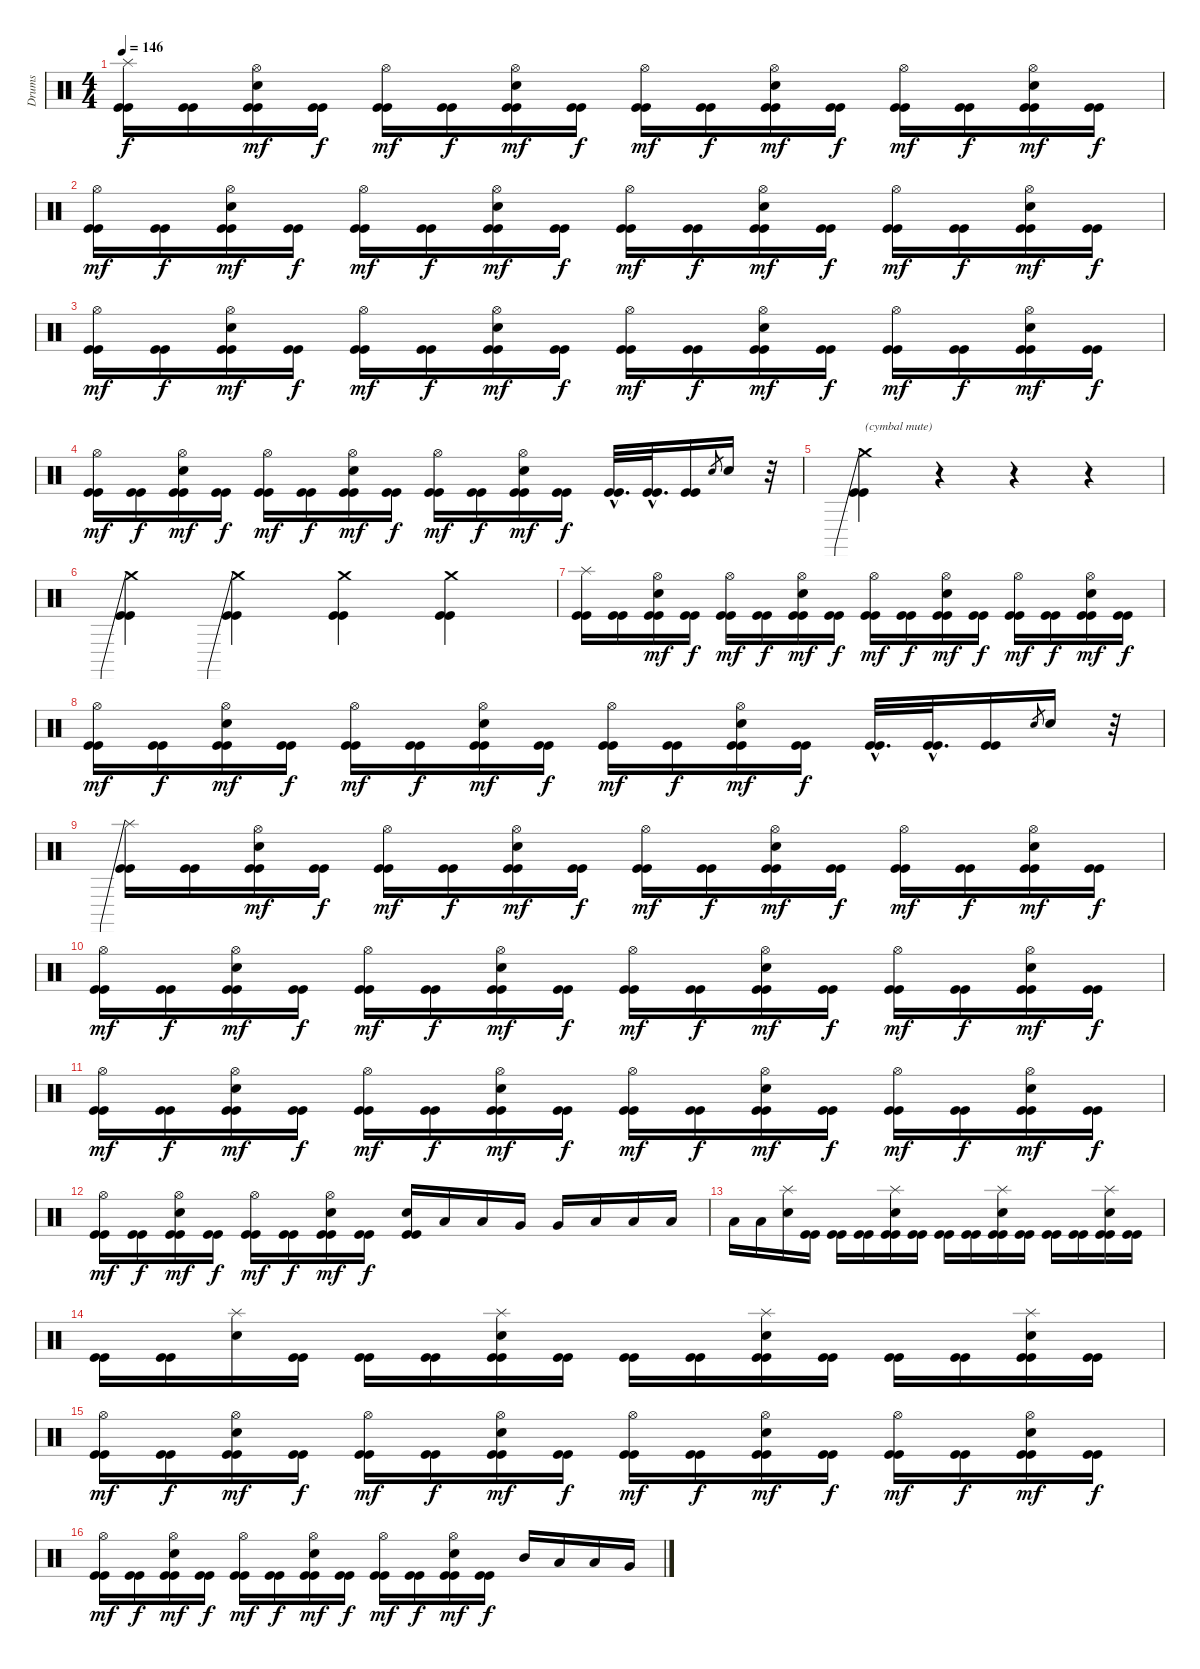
\track ("Drums" "Drums") {instrument percussion}
\staff {score}
\articulation defaults
\ts (4 4)
\tempo 146
\clef neutral
\ks c
("Splash (hit)" "Kick (hit)" "Kick (hit)").16{dy f} ("Kick (hit)" "Kick (hit)").16 ("Hi-Hat (open)" "Electric Snare (hit)" "Kick (hit)" "Kick (hit)").16{dy mf} ("Kick (hit)" "Kick (hit)").16{dy f} ("Hi-Hat (open)" "Kick (hit)" "Kick (hit)").16{dy mf} ("Kick (hit)" "Kick (hit)").16{dy f} ("Hi-Hat (open)" "Electric Snare (hit)" "Kick (hit)" "Kick (hit)").16{dy mf} ("Kick (hit)" "Kick (hit)").16{dy f} ("Hi-Hat (open)" "Kick (hit)" "Kick (hit)").16{dy mf} ("Kick (hit)" "Kick (hit)").16{dy f} ("Hi-Hat (open)" "Electric Snare (hit)" "Kick (hit)" "Kick (hit)").16{dy mf} ("Kick (hit)" "Kick (hit)").16{dy f} ("Hi-Hat (open)" "Kick (hit)" "Kick (hit)").16{dy mf} ("Kick (hit)" "Kick (hit)").16{dy f} ("Hi-Hat (open)" "Electric Snare (hit)" "Kick (hit)" "Kick (hit)").16{dy mf} ("Kick (hit)" "Kick (hit)").16{dy f} |
("Hi-Hat (open)" "Kick (hit)" "Kick (hit)").16{dy mf} ("Kick (hit)" "Kick (hit)").16{dy f} ("Hi-Hat (open)" "Electric Snare (hit)" "Kick (hit)" "Kick (hit)").16{dy mf} ("Kick (hit)" "Kick (hit)").16{dy f} ("Hi-Hat (open)" "Kick (hit)" "Kick (hit)").16{dy mf} ("Kick (hit)" "Kick (hit)").16{dy f} ("Hi-Hat (open)" "Electric Snare (hit)" "Kick (hit)" "Kick (hit)").16{dy mf} ("Kick (hit)" "Kick (hit)").16{dy f} ("Hi-Hat (open)" "Kick (hit)" "Kick (hit)").16{dy mf} ("Kick (hit)" "Kick (hit)").16{dy f} ("Hi-Hat (open)" "Electric Snare (hit)" "Kick (hit)" "Kick (hit)").16{dy mf} ("Kick (hit)" "Kick (hit)").16{dy f} ("Hi-Hat (open)" "Kick (hit)" "Kick (hit)").16{dy mf} ("Kick (hit)" "Kick (hit)").16{dy f} ("Hi-Hat (open)" "Electric Snare (hit)" "Kick (hit)" "Kick (hit)").16{dy mf} ("Kick (hit)" "Kick (hit)").16{dy f} |
("Hi-Hat (open)" "Kick (hit)" "Kick (hit)").16{dy mf} ("Kick (hit)" "Kick (hit)").16{dy f} ("Hi-Hat (open)" "Electric Snare (hit)" "Kick (hit)" "Kick (hit)").16{dy mf} ("Kick (hit)" "Kick (hit)").16{dy f} ("Hi-Hat (open)" "Kick (hit)" "Kick (hit)").16{dy mf} ("Kick (hit)" "Kick (hit)").16{dy f} ("Hi-Hat (open)" "Electric Snare (hit)" "Kick (hit)" "Kick (hit)").16{dy mf} ("Kick (hit)" "Kick (hit)").16{dy f} ("Hi-Hat (open)" "Kick (hit)" "Kick (hit)").16{dy mf} ("Kick (hit)" "Kick (hit)").16{dy f} ("Hi-Hat (open)" "Electric Snare (hit)" "Kick (hit)" "Kick (hit)").16{dy mf} ("Kick (hit)" "Kick (hit)").16{dy f} ("Hi-Hat (open)" "Kick (hit)" "Kick (hit)").16{dy mf} ("Kick (hit)" "Kick (hit)").16{dy f} ("Hi-Hat (open)" "Electric Snare (hit)" "Kick (hit)" "Kick (hit)").16{dy mf} ("Kick (hit)" "Kick (hit)").16{dy f} |
("Hi-Hat (open)" "Kick (hit)" "Kick (hit)").16{dy mf} ("Kick (hit)" "Kick (hit)").16{dy f} ("Hi-Hat (open)" "Electric Snare (hit)" "Kick (hit)" "Kick (hit)").16{dy mf} ("Kick (hit)" "Kick (hit)").16{dy f} ("Hi-Hat (open)" "Kick (hit)" "Kick (hit)").16{dy mf} ("Kick (hit)" "Kick (hit)").16{dy f} ("Hi-Hat (open)" "Electric Snare (hit)" "Kick (hit)" "Kick (hit)").16{dy mf} ("Kick (hit)" "Kick (hit)").16{dy f} ("Hi-Hat (open)" "Kick (hit)" "Kick (hit)").16{dy mf} ("Kick (hit)" "Kick (hit)").16{dy f} ("Hi-Hat (open)" "Electric Snare (hit)" "Kick (hit)" "Kick (hit)").16{dy mf} ("Kick (hit)" "Kick (hit)").16{dy f} ("Kick (hit)"{hac} "Kick (hit)"{hac}).32{d} ("Kick (hit)"{hac} "Kick (hit)"{hac}).32{d} ("Kick (hit)" "Kick (hit)").16 "Electric Snare (hit)".8{gr} "Electric Snare (hit)".16 r.32 |
("Crash medium (hit)"{be (prebend 0 3 60 3)} "Kick (hit)" "Kick (hit)").4{txt "(cymbal mute)"} r.4{volume 0} r.4 r.4 |
("Crash medium (hit)"{be (prebend 0 5 60 5)} "Kick (hit)" "Kick (hit)").4{volume 11} ("Crash medium (hit)"{be (prebend 0 2 60 2)} "Kick (hit)" "Kick (hit)").4 ("Crash medium (hit)" "Kick (hit)" "Kick (hit)").4 ("Crash medium (hit)" "Kick (hit)" "Kick (hit)").4 |
("Splash (hit)" "Kick (hit)" "Kick (hit)").16 ("Kick (hit)" "Kick (hit)").16 ("Hi-Hat (open)" "Electric Snare (hit)" "Kick (hit)" "Kick (hit)").16{dy mf} ("Kick (hit)" "Kick (hit)").16{dy f} ("Hi-Hat (open)" "Kick (hit)" "Kick (hit)").16{dy mf} ("Kick (hit)" "Kick (hit)").16{dy f} ("Hi-Hat (open)" "Electric Snare (hit)" "Kick (hit)" "Kick (hit)").16{dy mf} ("Kick (hit)" "Kick (hit)").16{dy f} ("Hi-Hat (open)" "Kick (hit)" "Kick (hit)").16{dy mf} ("Kick (hit)" "Kick (hit)").16{dy f} ("Hi-Hat (open)" "Electric Snare (hit)" "Kick (hit)" "Kick (hit)").16{dy mf} ("Kick (hit)" "Kick (hit)").16{dy f} ("Hi-Hat (open)" "Kick (hit)" "Kick (hit)").16{dy mf} ("Kick (hit)" "Kick (hit)").16{dy f} ("Hi-Hat (open)" "Electric Snare (hit)" "Kick (hit)" "Kick (hit)").16{dy mf} ("Kick (hit)" "Kick (hit)").16{dy f} |
("Hi-Hat (open)" "Kick (hit)" "Kick (hit)").16{dy mf} ("Kick (hit)" "Kick (hit)").16{dy f} ("Hi-Hat (open)" "Electric Snare (hit)" "Kick (hit)" "Kick (hit)").16{dy mf} ("Kick (hit)" "Kick (hit)").16{dy f} ("Hi-Hat (open)" "Kick (hit)" "Kick (hit)").16{dy mf} ("Kick (hit)" "Kick (hit)").16{dy f} ("Hi-Hat (open)" "Electric Snare (hit)" "Kick (hit)" "Kick (hit)").16{dy mf} ("Kick (hit)" "Kick (hit)").16{dy f} ("Hi-Hat (open)" "Kick (hit)" "Kick (hit)").16{dy mf} ("Kick (hit)" "Kick (hit)").16{dy f} ("Hi-Hat (open)" "Electric Snare (hit)" "Kick (hit)" "Kick (hit)").16{dy mf} ("Kick (hit)" "Kick (hit)").16{dy f} ("Kick (hit)"{hac} "Kick (hit)"{hac}).32{d} ("Kick (hit)"{hac} "Kick (hit)"{hac}).32{d} ("Kick (hit)" "Kick (hit)").16 "Electric Snare (hit)".8{gr} "Electric Snare (hit)".16 r.32 |
("Splash (hit)"{be (prebend 0 4 60 4)} "Kick (hit)" "Kick (hit)").16 ("Kick (hit)" "Kick (hit)").16 ("Hi-Hat (open)" "Electric Snare (hit)" "Kick (hit)" "Kick (hit)").16{dy mf} ("Kick (hit)" "Kick (hit)").16{dy f} ("Hi-Hat (open)" "Kick (hit)" "Kick (hit)").16{dy mf} ("Kick (hit)" "Kick (hit)").16{dy f} ("Hi-Hat (open)" "Electric Snare (hit)" "Kick (hit)" "Kick (hit)").16{dy mf} ("Kick (hit)" "Kick (hit)").16{dy f} ("Hi-Hat (open)" "Kick (hit)" "Kick (hit)").16{dy mf} ("Kick (hit)" "Kick (hit)").16{dy f} ("Hi-Hat (open)" "Electric Snare (hit)" "Kick (hit)" "Kick (hit)").16{dy mf} ("Kick (hit)" "Kick (hit)").16{dy f} ("Hi-Hat (open)" "Kick (hit)" "Kick (hit)").16{dy mf} ("Kick (hit)" "Kick (hit)").16{dy f} ("Hi-Hat (open)" "Electric Snare (hit)" "Kick (hit)" "Kick (hit)").16{dy mf} ("Kick (hit)" "Kick (hit)").16{dy f} |
("Hi-Hat (open)" "Kick (hit)" "Kick (hit)").16{dy mf} ("Kick (hit)" "Kick (hit)").16{dy f} ("Hi-Hat (open)" "Electric Snare (hit)" "Kick (hit)" "Kick (hit)").16{dy mf} ("Kick (hit)" "Kick (hit)").16{dy f} ("Hi-Hat (open)" "Kick (hit)" "Kick (hit)").16{dy mf} ("Kick (hit)" "Kick (hit)").16{dy f} ("Hi-Hat (open)" "Electric Snare (hit)" "Kick (hit)" "Kick (hit)").16{dy mf} ("Kick (hit)" "Kick (hit)").16{dy f} ("Hi-Hat (open)" "Kick (hit)" "Kick (hit)").16{dy mf} ("Kick (hit)" "Kick (hit)").16{dy f} ("Hi-Hat (open)" "Electric Snare (hit)" "Kick (hit)" "Kick (hit)").16{dy mf} ("Kick (hit)" "Kick (hit)").16{dy f} ("Hi-Hat (open)" "Kick (hit)" "Kick (hit)").16{dy mf} ("Kick (hit)" "Kick (hit)").16{dy f} ("Hi-Hat (open)" "Electric Snare (hit)" "Kick (hit)" "Kick (hit)").16{dy mf} ("Kick (hit)" "Kick (hit)").16{dy f} |
("Hi-Hat (open)" "Kick (hit)" "Kick (hit)").16{dy mf} ("Kick (hit)" "Kick (hit)").16{dy f} ("Hi-Hat (open)" "Electric Snare (hit)" "Kick (hit)" "Kick (hit)").16{dy mf} ("Kick (hit)" "Kick (hit)").16{dy f} ("Hi-Hat (open)" "Kick (hit)" "Kick (hit)").16{dy mf} ("Kick (hit)" "Kick (hit)").16{dy f} ("Hi-Hat (open)" "Electric Snare (hit)" "Kick (hit)" "Kick (hit)").16{dy mf} ("Kick (hit)" "Kick (hit)").16{dy f} ("Hi-Hat (open)" "Kick (hit)" "Kick (hit)").16{dy mf} ("Kick (hit)" "Kick (hit)").16{dy f} ("Hi-Hat (open)" "Electric Snare (hit)" "Kick (hit)" "Kick (hit)").16{dy mf} ("Kick (hit)" "Kick (hit)").16{dy f} ("Hi-Hat (open)" "Kick (hit)" "Kick (hit)").16{dy mf} ("Kick (hit)" "Kick (hit)").16{dy f} ("Hi-Hat (open)" "Electric Snare (hit)" "Kick (hit)" "Kick (hit)").16{dy mf} ("Kick (hit)" "Kick (hit)").16{dy f} |
("Hi-Hat (open)" "Kick (hit)" "Kick (hit)").16{dy mf} ("Kick (hit)" "Kick (hit)").16{dy f} ("Hi-Hat (open)" "Electric Snare (hit)" "Kick (hit)" "Kick (hit)").16{dy mf} ("Kick (hit)" "Kick (hit)").16{dy f} ("Hi-Hat (open)" "Kick (hit)" "Kick (hit)").16{dy mf} ("Kick (hit)" "Kick (hit)").16{dy f} ("Hi-Hat (open)" "Electric Snare (hit)" "Kick (hit)" "Kick (hit)").16{dy mf} ("Kick (hit)" "Kick (hit)").16{dy f} ("Electric Snare (hit)" "Kick (hit)" "Kick (hit)").16 "Low Tom (hit)".16 "Low Tom (hit)".16 "Very Low Tom (hit)".16 "Very Low Tom (hit)".16 "Low Floor Tom (hit)".16 "Low Floor Tom (hit)".16 "Low Floor Tom (hit)".16 |
"Low Floor Tom (hit)".16 "Low Floor Tom (hit)".16 ("Splash (hit)" "Electric Snare (hit)").16 ("Kick (hit)" "Kick (hit)").16 ("Kick (hit)" "Kick (hit)").16 ("Kick (hit)" "Kick (hit)").16 ("Splash (hit)" "Electric Snare (hit)" "Kick (hit)" "Kick (hit)").16 ("Kick (hit)" "Kick (hit)").16 ("Kick (hit)" "Kick (hit)").16 ("Kick (hit)" "Kick (hit)").16 ("Splash (hit)" "Electric Snare (hit)" "Kick (hit)" "Kick (hit)").16 ("Kick (hit)" "Kick (hit)").16 ("Kick (hit)" "Kick (hit)").16 ("Kick (hit)" "Kick (hit)").16 ("Splash (hit)" "Electric Snare (hit)" "Kick (hit)" "Kick (hit)").16 ("Kick (hit)" "Kick (hit)").16 |
("Kick (hit)" "Kick (hit)").16 ("Kick (hit)" "Kick (hit)").16 ("Splash (hit)" "Electric Snare (hit)").16 ("Kick (hit)" "Kick (hit)").16 ("Kick (hit)" "Kick (hit)").16 ("Kick (hit)" "Kick (hit)").16 ("Splash (hit)" "Electric Snare (hit)" "Kick (hit)" "Kick (hit)").16 ("Kick (hit)" "Kick (hit)").16 ("Kick (hit)" "Kick (hit)").16 ("Kick (hit)" "Kick (hit)").16 ("Splash (hit)" "Electric Snare (hit)" "Kick (hit)" "Kick (hit)").16 ("Kick (hit)" "Kick (hit)").16 ("Kick (hit)" "Kick (hit)").16 ("Kick (hit)" "Kick (hit)").16 ("Splash (hit)" "Electric Snare (hit)" "Kick (hit)" "Kick (hit)").16 ("Kick (hit)" "Kick (hit)").16 |
("Hi-Hat (open)" "Kick (hit)" "Kick (hit)").16{dy mf} ("Kick (hit)" "Kick (hit)").16{dy f} ("Hi-Hat (open)" "Electric Snare (hit)" "Kick (hit)" "Kick (hit)").16{dy mf} ("Kick (hit)" "Kick (hit)").16{dy f} ("Hi-Hat (open)" "Kick (hit)" "Kick (hit)").16{dy mf} ("Kick (hit)" "Kick (hit)").16{dy f} ("Hi-Hat (open)" "Electric Snare (hit)" "Kick (hit)" "Kick (hit)").16{dy mf} ("Kick (hit)" "Kick (hit)").16{dy f} ("Hi-Hat (open)" "Kick (hit)" "Kick (hit)").16{dy mf} ("Kick (hit)" "Kick (hit)").16{dy f} ("Hi-Hat (open)" "Electric Snare (hit)" "Kick (hit)" "Kick (hit)").16{dy mf} ("Kick (hit)" "Kick (hit)").16{dy f} ("Hi-Hat (open)" "Kick (hit)" "Kick (hit)").16{dy mf} ("Kick (hit)" "Kick (hit)").16{dy f} ("Hi-Hat (open)" "Electric Snare (hit)" "Kick (hit)" "Kick (hit)").16{dy mf} ("Kick (hit)" "Kick (hit)").16{dy f} |
("Hi-Hat (open)" "Kick (hit)" "Kick (hit)").16{dy mf} ("Kick (hit)" "Kick (hit)").16{dy f} ("Hi-Hat (open)" "Electric Snare (hit)" "Kick (hit)" "Kick (hit)").16{dy mf} ("Kick (hit)" "Kick (hit)").16{dy f} ("Hi-Hat (open)" "Kick (hit)" "Kick (hit)").16{dy mf} ("Kick (hit)" "Kick (hit)").16{dy f} ("Hi-Hat (open)" "Electric Snare (hit)" "Kick (hit)" "Kick (hit)").16{dy mf} ("Kick (hit)" "Kick (hit)").16{dy f} ("Hi-Hat (open)" "Kick (hit)" "Kick (hit)").16{dy mf} ("Kick (hit)" "Kick (hit)").16{dy f} ("Hi-Hat (open)" "Electric Snare (hit)" "Kick (hit)" "Kick (hit)").16{dy mf} ("Kick (hit)" "Kick (hit)").16{dy f} "Mid Tom (hit)".16 "Low Tom (hit)".16 "Low Tom (hit)".16 "Very Low Tom (hit)".16
